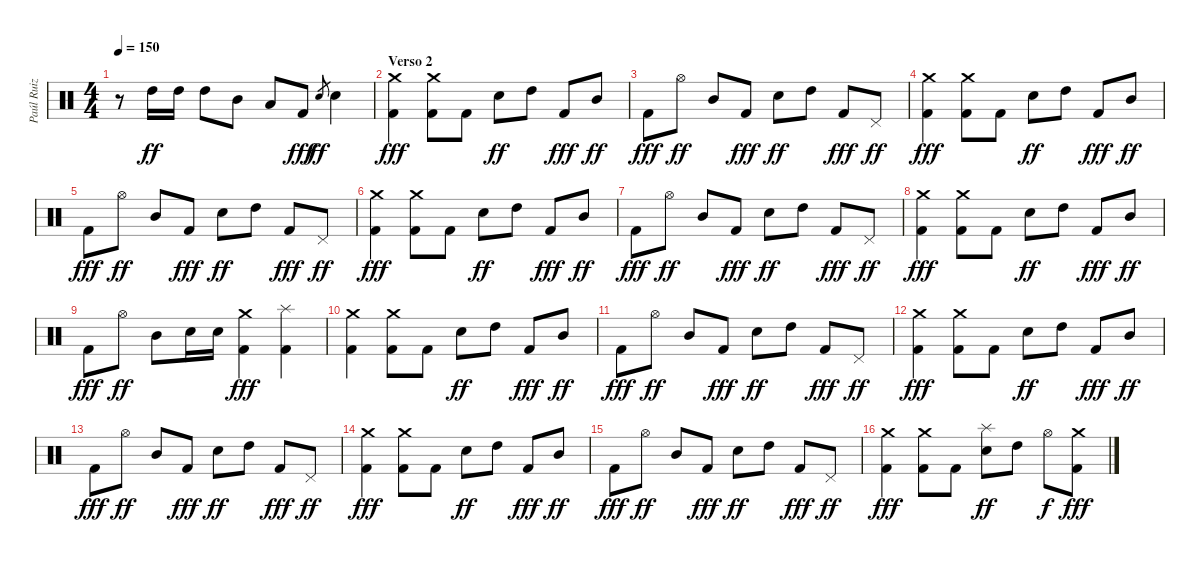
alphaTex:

\track ("Paúl Ruiz" "Paúl Ruiz") {instrument percussion}
\staff {score}
\articulation defaults
\ts (4 4)
\tempo 150
\clef neutral
\ks c
r.8{dy fff} "High Tom (hit)".16{dy ff} "High Tom (hit)".16 "High Tom (hit)".8 "Mid Tom (hit)".8 "Low Tom (hit)".8 "Kick (hit) 2".8{dy fff} "Snare (hit) 2".8{gr dy ff} "Snare (hit) 2".4 |
\section ("" "Verso 2")
("Crash medium (hit)" "Kick (hit) 2").4{dy fff} ("Crash medium (hit)" "Kick (hit) 2").8 "Kick (hit) 2".8 "Snare (hit) 2".8{dy ff} "High Tom (hit)".8 "Kick (hit) 2".8{dy fff} "Mid Tom (hit)".8{dy ff} |
"Kick (hit) 2".8{dy fff} "Hi-Hat (open)".8{dy ff} "Mid Tom (hit)".8 "Kick (hit) 2".8{dy fff} "Snare (hit) 2".8{dy ff} "High Tom (hit)".8 "Kick (hit) 2".8{dy fff} "Pedal Hi-Hat (hit)".8{dy ff} |
("Crash medium (hit)" "Kick (hit) 2").4{dy fff} ("Crash medium (hit)" "Kick (hit) 2").8 "Kick (hit) 2".8 "Snare (hit) 2".8{dy ff} "High Tom (hit)".8 "Kick (hit) 2".8{dy fff} "Mid Tom (hit)".8{dy ff} |
"Kick (hit) 2".8{dy fff} "Hi-Hat (open)".8{dy ff} "Mid Tom (hit)".8 "Kick (hit) 2".8{dy fff} "Snare (hit) 2".8{dy ff} "High Tom (hit)".8 "Kick (hit) 2".8{dy fff} "Pedal Hi-Hat (hit)".8{dy ff} |
("Crash medium (hit)" "Kick (hit) 2").4{dy fff} ("Crash medium (hit)" "Kick (hit) 2").8 "Kick (hit) 2".8 "Snare (hit) 2".8{dy ff} "High Tom (hit)".8 "Kick (hit) 2".8{dy fff} "Mid Tom (hit)".8{dy ff} |
"Kick (hit) 2".8{dy fff} "Hi-Hat (open)".8{dy ff} "Mid Tom (hit)".8 "Kick (hit) 2".8{dy fff} "Snare (hit) 2".8{dy ff} "High Tom (hit)".8 "Kick (hit) 2".8{dy fff} "Pedal Hi-Hat (hit)".8{dy ff} |
("Crash medium (hit)" "Kick (hit) 2").4{dy fff} ("Crash medium (hit)" "Kick (hit) 2").8 "Kick (hit) 2".8 "Snare (hit) 2".8{dy ff} "High Tom (hit)".8 "Kick (hit) 2".8{dy fff} "Mid Tom (hit)".8{dy ff} |
"Kick (hit) 2".8{dy fff} "Hi-Hat (open)".8{dy ff} "Mid Tom (hit)".8 "Snare (hit) 2".16 "Snare (hit) 2".16 ("Crash medium (hit)" "Kick (hit) 2").4{dy fff} ("Splash (hit)" "Kick (hit) 2").4 |
("Crash medium (hit)" "Kick (hit) 2").4 ("Crash medium (hit)" "Kick (hit) 2").8 "Kick (hit) 2".8 "Snare (hit) 2".8{dy ff} "High Tom (hit)".8 "Kick (hit) 2".8{dy fff} "Mid Tom (hit)".8{dy ff} |
"Kick (hit) 2".8{dy fff} "Hi-Hat (open)".8{dy ff} "Mid Tom (hit)".8 "Kick (hit) 2".8{dy fff} "Snare (hit) 2".8{dy ff} "High Tom (hit)".8 "Kick (hit) 2".8{dy fff} "Pedal Hi-Hat (hit)".8{dy ff} |
("Crash medium (hit)" "Kick (hit) 2").4{dy fff} ("Crash medium (hit)" "Kick (hit) 2").8 "Kick (hit) 2".8 "Snare (hit) 2".8{dy ff} "High Tom (hit)".8 "Kick (hit) 2".8{dy fff} "Mid Tom (hit)".8{dy ff} |
"Kick (hit) 2".8{dy fff} "Hi-Hat (open)".8{dy ff} "Mid Tom (hit)".8 "Kick (hit) 2".8{dy fff} "Snare (hit) 2".8{dy ff} "High Tom (hit)".8 "Kick (hit) 2".8{dy fff} "Pedal Hi-Hat (hit)".8{dy ff} |
("Crash medium (hit)" "Kick (hit) 2").4{dy fff} ("Crash medium (hit)" "Kick (hit) 2").8 "Kick (hit) 2".8 "Snare (hit) 2".8{dy ff} "High Tom (hit)".8 "Kick (hit) 2".8{dy fff} "Mid Tom (hit)".8{dy ff} |
"Kick (hit) 2".8{dy fff} "Hi-Hat (open)".8{dy ff} "Mid Tom (hit)".8 "Kick (hit) 2".8{dy fff} "Snare (hit) 2".8{dy ff} "High Tom (hit)".8 "Kick (hit) 2".8{dy fff} "Pedal Hi-Hat (hit)".8{dy ff} |
("Crash medium (hit)" "Kick (hit) 2").4{dy fff} ("Crash medium (hit)" "Kick (hit) 2").8 "Kick (hit) 2".8 ("Splash (hit)" "Snare (hit) 2").8{dy ff} "High Tom (hit)".8 "Hi-Hat (open)".8{dy f} ("Crash medium (hit)" "Kick (hit) 2").8{dy fff}
